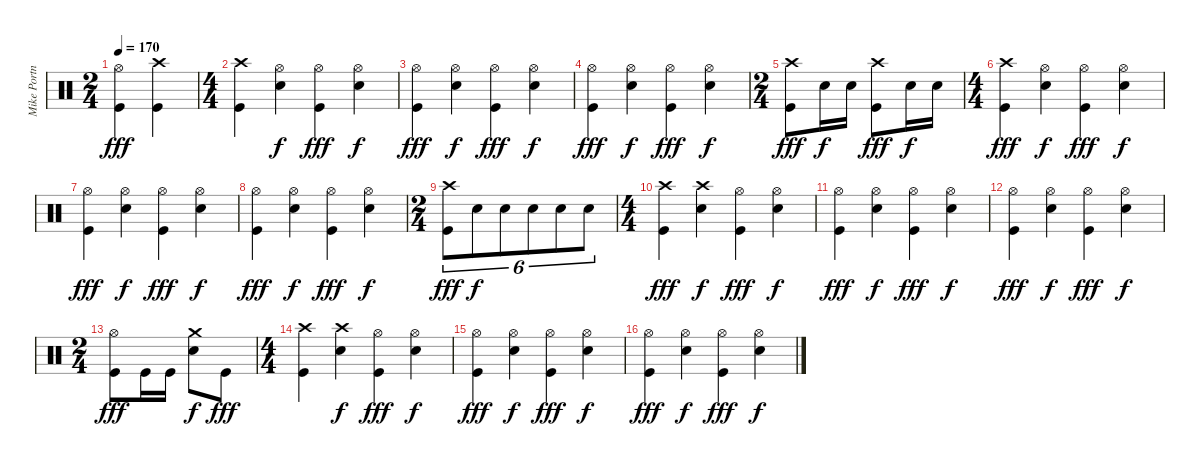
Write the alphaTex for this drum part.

\track ("Mike Portnoy" "Mike Portn") {instrument percussion}
\staff {score}
\articulation defaults
\ts (2 4)
\tempo 170
\clef neutral
\ks c
("Hi-Hat (open)" "Kick (hit)").4{dy fff} ("Crash high (hit)" "Kick (hit)").4 |
\ts (4 4)
("Crash high (hit)" "Kick (hit)").4 ("Hi-Hat (open)" "Electric Snare (hit)").4{dy f} ("Hi-Hat (open)" "Kick (hit)").4{dy fff} ("Hi-Hat (open)" "Electric Snare (hit)").4{dy f} |
("Hi-Hat (open)" "Kick (hit)").4{dy fff} ("Hi-Hat (open)" "Electric Snare (hit)").4{dy f} ("Hi-Hat (open)" "Kick (hit)").4{dy fff} ("Hi-Hat (open)" "Electric Snare (hit)").4{dy f} |
("Hi-Hat (open)" "Kick (hit)").4{dy fff} ("Hi-Hat (open)" "Electric Snare (hit)").4{dy f} ("Hi-Hat (open)" "Kick (hit)").4{dy fff} ("Hi-Hat (open)" "Electric Snare (hit)").4{dy f} |
\ts (2 4)
("Crash high (hit)" "Kick (hit)").8{dy fff} "Electric Snare (hit)".16{dy f} "Electric Snare (hit)".16 ("Crash high (hit)" "Kick (hit)").8{dy fff} "Electric Snare (hit)".16{dy f} "Electric Snare (hit)".16 |
\ts (4 4)
("Crash high (hit)" "Kick (hit)").4{dy fff} ("Hi-Hat (open)" "Electric Snare (hit)").4{dy f} ("Hi-Hat (open)" "Kick (hit)").4{dy fff} ("Hi-Hat (open)" "Electric Snare (hit)").4{dy f} |
("Hi-Hat (open)" "Kick (hit)").4{dy fff} ("Hi-Hat (open)" "Electric Snare (hit)").4{dy f} ("Hi-Hat (open)" "Kick (hit)").4{dy fff} ("Hi-Hat (open)" "Electric Snare (hit)").4{dy f} |
("Hi-Hat (open)" "Kick (hit)").4{dy fff} ("Hi-Hat (open)" "Electric Snare (hit)").4{dy f} ("Hi-Hat (open)" "Kick (hit)").4{dy fff} ("Hi-Hat (open)" "Electric Snare (hit)").4{dy f} |
\ts (2 4)
("Crash high (hit)" "Kick (hit)").8{tu (6 4) dy fff} "Electric Snare (hit)".8{tu (6 4) dy f} "Electric Snare (hit)".8{tu (6 4)} "Electric Snare (hit)".8{tu (6 4)} "Electric Snare (hit)".8{tu (6 4)} "Electric Snare (hit)".8{tu (6 4)} |
\ts (4 4)
("Crash high (hit)" "Kick (hit)").4{dy fff} ("Crash high (hit)" "Electric Snare (hit)").4{dy f} ("Hi-Hat (open)" "Kick (hit)").4{dy fff} ("Hi-Hat (open)" "Electric Snare (hit)").4{dy f} |
("Hi-Hat (open)" "Kick (hit)").4{dy fff} ("Hi-Hat (open)" "Electric Snare (hit)").4{dy f} ("Hi-Hat (open)" "Kick (hit)").4{dy fff} ("Hi-Hat (open)" "Electric Snare (hit)").4{dy f} |
("Hi-Hat (open)" "Kick (hit)").4{dy fff} ("Hi-Hat (open)" "Electric Snare (hit)").4{dy f} ("Hi-Hat (open)" "Kick (hit)").4{dy fff} ("Hi-Hat (open)" "Electric Snare (hit)").4{dy f} |
\ts (2 4)
("Hi-Hat (open)" "Kick (hit)").8{dy fff} "Kick (hit)".16 "Kick (hit)".16 ("Crash medium (hit)" "Electric Snare (hit)").8{dy f} "Kick (hit)".8{dy fff} |
\ts (4 4)
("Crash high (hit)" "Kick (hit)").4 ("Crash high (hit)" "Electric Snare (hit)").4{dy f} ("Hi-Hat (open)" "Kick (hit)").4{dy fff} ("Hi-Hat (open)" "Electric Snare (hit)").4{dy f} |
("Hi-Hat (open)" "Kick (hit)").4{dy fff} ("Hi-Hat (open)" "Electric Snare (hit)").4{dy f} ("Hi-Hat (open)" "Kick (hit)").4{dy fff} ("Hi-Hat (open)" "Electric Snare (hit)").4{dy f} |
("Hi-Hat (open)" "Kick (hit)").4{dy fff} ("Hi-Hat (open)" "Electric Snare (hit)").4{dy f} ("Hi-Hat (open)" "Kick (hit)").4{dy fff} ("Hi-Hat (open)" "Electric Snare (hit)").4{dy f}
